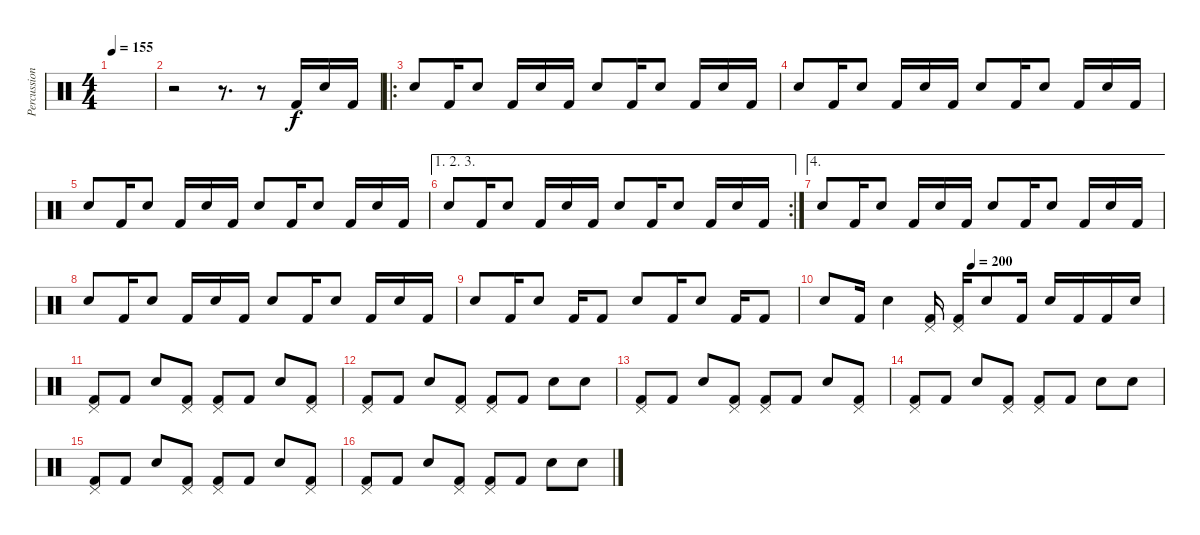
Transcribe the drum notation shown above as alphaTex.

\track ("Percussion" "Percussion") {instrument percussion}
\staff {score}
\articulation defaults
\ts (4 4)
\tempo 155
\clef neutral
\ks c
|
r.2 r.8{d} r.8 "Kick (hit) 2".16 "Snare (hit) 2".16 "Kick (hit) 2".16 |
\ro "Snare (hit) 2".8 "Kick (hit) 2".16 "Snare (hit) 2".8 "Kick (hit) 2".16 "Snare (hit) 2".16 "Kick (hit) 2".16 "Snare (hit) 2".8 "Kick (hit) 2".16 "Snare (hit) 2".8 "Kick (hit) 2".16 "Snare (hit) 2".16 "Kick (hit) 2".16
|
"Snare (hit) 2".8 "Kick (hit) 2".16 "Snare (hit) 2".8 "Kick (hit) 2".16 "Snare (hit) 2".16 "Kick (hit) 2".16 "Snare (hit) 2".8 "Kick (hit) 2".16 "Snare (hit) 2".8 "Kick (hit) 2".16 "Snare (hit) 2".16 "Kick (hit) 2".16 |
"Snare (hit) 2".8 "Kick (hit) 2".16 "Snare (hit) 2".8 "Kick (hit) 2".16 "Snare (hit) 2".16 "Kick (hit) 2".16 "Snare (hit) 2".8 "Kick (hit) 2".16 "Snare (hit) 2".8 "Kick (hit) 2".16 "Snare (hit) 2".16 "Kick (hit) 2".16 |
\ae (1 2 3)
\rc 2 "Snare (hit) 2".8 "Kick (hit) 2".16 "Snare (hit) 2".8 "Kick (hit) 2".16 "Snare (hit) 2".16 "Kick (hit) 2".16 "Snare (hit) 2".8 "Kick (hit) 2".16 "Snare (hit) 2".8 "Kick (hit) 2".16 "Snare (hit) 2".16 "Kick (hit) 2".16
|
\ae 4 "Snare (hit) 2".8 "Kick (hit) 2".16 "Snare (hit) 2".8 "Kick (hit) 2".16 "Snare (hit) 2".16 "Kick (hit) 2".16 "Snare (hit) 2".8 "Kick (hit) 2".16 "Snare (hit) 2".8 "Kick (hit) 2".16 "Snare (hit) 2".16 "Kick (hit) 2".16
|
"Snare (hit) 2".8 "Kick (hit) 2".16 "Snare (hit) 2".8 "Kick (hit) 2".16 "Snare (hit) 2".16 "Kick (hit) 2".16 "Snare (hit) 2".8 "Kick (hit) 2".16 "Snare (hit) 2".8 "Kick (hit) 2".16 "Snare (hit) 2".16 "Kick (hit) 2".16 |
"Snare (hit) 2".8 "Kick (hit) 2".16 "Snare (hit) 2".8 "Kick (hit) 2".16 "Kick (hit) 2".8 "Snare (hit) 2".8 "Kick (hit) 2".16 "Snare (hit) 2".8 "Kick (hit) 2".16 "Kick (hit) 2".8 |
\tempo (200 0.4375)
"Snare (hit) 2".8 "Kick (hit) 2".16 "Snare (hit) 2".4 ("Pedal Hi-Hat (hit)" "Kick (hit) 2").16 ("Pedal Hi-Hat (hit)" "Kick (hit) 2").16 "Snare (hit) 2".8 "Kick (hit) 2".16 "Snare (hit) 2".16 "Kick (hit) 2".16 "Kick (hit) 2".16 "Snare (hit) 2".16 |
("Pedal Hi-Hat (hit)" "Kick (hit) 2").8 "Kick (hit) 2".8 "Snare (hit) 2".8 ("Pedal Hi-Hat (hit)" "Kick (hit) 2").8 ("Pedal Hi-Hat (hit)" "Kick (hit) 2").8 "Kick (hit) 2".8 "Snare (hit) 2".8 ("Pedal Hi-Hat (hit)" "Kick (hit) 2").8 |
("Pedal Hi-Hat (hit)" "Kick (hit) 2").8 "Kick (hit) 2".8 "Snare (hit) 2".8 ("Pedal Hi-Hat (hit)" "Kick (hit) 2").8 ("Pedal Hi-Hat (hit)" "Kick (hit) 2").8 "Kick (hit) 2".8 "Snare (hit) 2".8 "Snare (hit) 2".8 |
("Pedal Hi-Hat (hit)" "Kick (hit) 2").8 "Kick (hit) 2".8 "Snare (hit) 2".8 ("Pedal Hi-Hat (hit)" "Kick (hit) 2").8 ("Pedal Hi-Hat (hit)" "Kick (hit) 2").8 "Kick (hit) 2".8 "Snare (hit) 2".8 ("Pedal Hi-Hat (hit)" "Kick (hit) 2").8 |
("Pedal Hi-Hat (hit)" "Kick (hit) 2").8 "Kick (hit) 2".8 "Snare (hit) 2".8 ("Pedal Hi-Hat (hit)" "Kick (hit) 2").8 ("Pedal Hi-Hat (hit)" "Kick (hit) 2").8 "Kick (hit) 2".8 "Snare (hit) 2".8 "Snare (hit) 2".8 |
("Pedal Hi-Hat (hit)" "Kick (hit) 2").8 "Kick (hit) 2".8 "Snare (hit) 2".8 ("Pedal Hi-Hat (hit)" "Kick (hit) 2").8 ("Pedal Hi-Hat (hit)" "Kick (hit) 2").8 "Kick (hit) 2".8 "Snare (hit) 2".8 ("Pedal Hi-Hat (hit)" "Kick (hit) 2").8 |
("Pedal Hi-Hat (hit)" "Kick (hit) 2").8 "Kick (hit) 2".8 "Snare (hit) 2".8 ("Pedal Hi-Hat (hit)" "Kick (hit) 2").8 ("Pedal Hi-Hat (hit)" "Kick (hit) 2").8 "Kick (hit) 2".8 "Snare (hit) 2".8 "Snare (hit) 2".8
